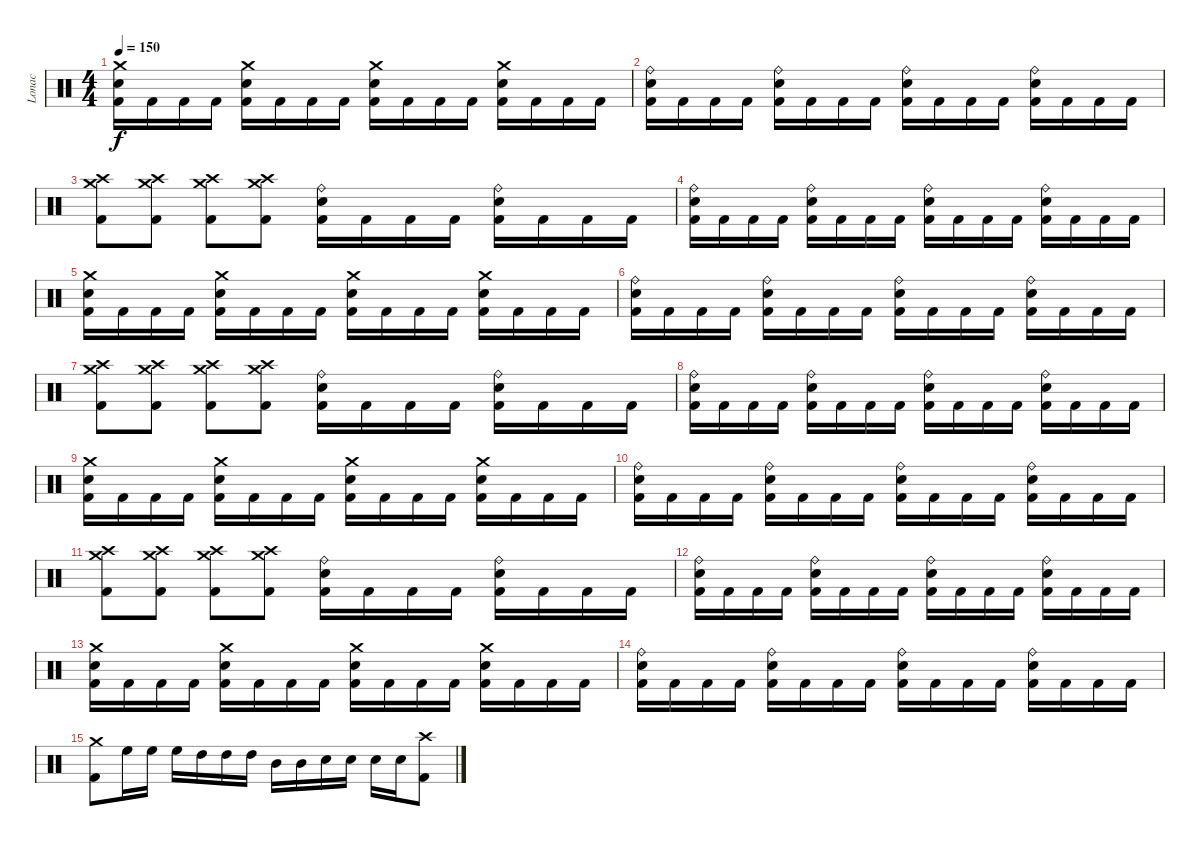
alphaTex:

\track ("Lonac" "Lonac") {instrument percussion}
\staff {score}
\articulation defaults
\ts (4 4)
\tempo 150
\clef neutral
\ks c
("Kick (hit) 2" "Snare (hit) 2" "Crash medium (hit)").16{dy f} "Kick (hit) 2".16 "Kick (hit) 2".16 "Kick (hit) 2".16 ("Kick (hit) 2" "Snare (hit) 2" "Crash medium (hit)").16 "Kick (hit) 2".16 "Kick (hit) 2".16 "Kick (hit) 2".16 ("Kick (hit) 2" "Snare (hit) 2" "Crash medium (hit)").16 "Kick (hit) 2".16 "Kick (hit) 2".16 "Kick (hit) 2".16 ("Kick (hit) 2" "Snare (hit) 2" "Crash medium (hit)").16 "Kick (hit) 2".16 "Kick (hit) 2".16 "Kick (hit) 2".16 |
("Kick (hit) 2" "Snare (hit) 2" "Ride (bell)").16 "Kick (hit) 2".16 "Kick (hit) 2".16 "Kick (hit) 2".16 ("Kick (hit) 2" "Snare (hit) 2" "Ride (bell)").16 "Kick (hit) 2".16 "Kick (hit) 2".16 "Kick (hit) 2".16 ("Kick (hit) 2" "Snare (hit) 2" "Ride (bell)").16 "Kick (hit) 2".16 "Kick (hit) 2".16 "Kick (hit) 2".16 ("Kick (hit) 2" "Snare (hit) 2" "Ride (bell)").16 "Kick (hit) 2".16 "Kick (hit) 2".16 "Kick (hit) 2".16 |
("Crash high (hit)" "Crash medium (hit)" "Kick (hit) 2").8 ("Crash high (hit)" "Crash medium (hit)" "Kick (hit) 2").8 ("Crash high (hit)" "Crash medium (hit)" "Kick (hit) 2").8 ("Crash high (hit)" "Crash medium (hit)" "Kick (hit) 2").8 ("Kick (hit) 2" "Snare (hit) 2" "Ride (bell)").16 "Kick (hit) 2".16 "Kick (hit) 2".16 "Kick (hit) 2".16 ("Kick (hit) 2" "Snare (hit) 2" "Ride (bell)").16 "Kick (hit) 2".16 "Kick (hit) 2".16 "Kick (hit) 2".16 |
("Kick (hit) 2" "Snare (hit) 2" "Ride (bell)").16 "Kick (hit) 2".16 "Kick (hit) 2".16 "Kick (hit) 2".16 ("Kick (hit) 2" "Snare (hit) 2" "Ride (bell)").16 "Kick (hit) 2".16 "Kick (hit) 2".16 "Kick (hit) 2".16 ("Kick (hit) 2" "Snare (hit) 2" "Ride (bell)").16 "Kick (hit) 2".16 "Kick (hit) 2".16 "Kick (hit) 2".16 ("Kick (hit) 2" "Snare (hit) 2" "Ride (bell)").16 "Kick (hit) 2".16 "Kick (hit) 2".16 "Kick (hit) 2".16 |
("Kick (hit) 2" "Snare (hit) 2" "Crash medium (hit)").16 "Kick (hit) 2".16 "Kick (hit) 2".16 "Kick (hit) 2".16 ("Kick (hit) 2" "Snare (hit) 2" "Crash medium (hit)").16 "Kick (hit) 2".16 "Kick (hit) 2".16 "Kick (hit) 2".16 ("Kick (hit) 2" "Snare (hit) 2" "Crash medium (hit)").16 "Kick (hit) 2".16 "Kick (hit) 2".16 "Kick (hit) 2".16 ("Kick (hit) 2" "Snare (hit) 2" "Crash medium (hit)").16 "Kick (hit) 2".16 "Kick (hit) 2".16 "Kick (hit) 2".16 |
("Kick (hit) 2" "Snare (hit) 2" "Ride (bell)").16 "Kick (hit) 2".16 "Kick (hit) 2".16 "Kick (hit) 2".16 ("Kick (hit) 2" "Snare (hit) 2" "Ride (bell)").16 "Kick (hit) 2".16 "Kick (hit) 2".16 "Kick (hit) 2".16 ("Kick (hit) 2" "Snare (hit) 2" "Ride (bell)").16 "Kick (hit) 2".16 "Kick (hit) 2".16 "Kick (hit) 2".16 ("Kick (hit) 2" "Snare (hit) 2" "Ride (bell)").16 "Kick (hit) 2".16 "Kick (hit) 2".16 "Kick (hit) 2".16 |
("Crash high (hit)" "Crash medium (hit)" "Kick (hit) 2").8 ("Crash high (hit)" "Crash medium (hit)" "Kick (hit) 2").8 ("Crash high (hit)" "Crash medium (hit)" "Kick (hit) 2").8 ("Crash high (hit)" "Crash medium (hit)" "Kick (hit) 2").8 ("Kick (hit) 2" "Snare (hit) 2" "Ride (bell)").16 "Kick (hit) 2".16 "Kick (hit) 2".16 "Kick (hit) 2".16 ("Kick (hit) 2" "Snare (hit) 2" "Ride (bell)").16 "Kick (hit) 2".16 "Kick (hit) 2".16 "Kick (hit) 2".16 |
("Kick (hit) 2" "Snare (hit) 2" "Ride (bell)").16 "Kick (hit) 2".16 "Kick (hit) 2".16 "Kick (hit) 2".16 ("Kick (hit) 2" "Snare (hit) 2" "Ride (bell)").16 "Kick (hit) 2".16 "Kick (hit) 2".16 "Kick (hit) 2".16 ("Kick (hit) 2" "Snare (hit) 2" "Ride (bell)").16 "Kick (hit) 2".16 "Kick (hit) 2".16 "Kick (hit) 2".16 ("Kick (hit) 2" "Snare (hit) 2" "Ride (bell)").16 "Kick (hit) 2".16 "Kick (hit) 2".16 "Kick (hit) 2".16 |
("Kick (hit) 2" "Snare (hit) 2" "Crash medium (hit)").16 "Kick (hit) 2".16 "Kick (hit) 2".16 "Kick (hit) 2".16 ("Kick (hit) 2" "Snare (hit) 2" "Crash medium (hit)").16 "Kick (hit) 2".16 "Kick (hit) 2".16 "Kick (hit) 2".16 ("Kick (hit) 2" "Snare (hit) 2" "Crash medium (hit)").16 "Kick (hit) 2".16 "Kick (hit) 2".16 "Kick (hit) 2".16 ("Kick (hit) 2" "Snare (hit) 2" "Crash medium (hit)").16 "Kick (hit) 2".16 "Kick (hit) 2".16 "Kick (hit) 2".16 |
("Kick (hit) 2" "Snare (hit) 2" "Ride (bell)").16 "Kick (hit) 2".16 "Kick (hit) 2".16 "Kick (hit) 2".16 ("Kick (hit) 2" "Snare (hit) 2" "Ride (bell)").16 "Kick (hit) 2".16 "Kick (hit) 2".16 "Kick (hit) 2".16 ("Kick (hit) 2" "Snare (hit) 2" "Ride (bell)").16 "Kick (hit) 2".16 "Kick (hit) 2".16 "Kick (hit) 2".16 ("Kick (hit) 2" "Snare (hit) 2" "Ride (bell)").16 "Kick (hit) 2".16 "Kick (hit) 2".16 "Kick (hit) 2".16 |
("Crash high (hit)" "Crash medium (hit)" "Kick (hit) 2").8 ("Crash high (hit)" "Crash medium (hit)" "Kick (hit) 2").8 ("Crash high (hit)" "Crash medium (hit)" "Kick (hit) 2").8 ("Crash high (hit)" "Crash medium (hit)" "Kick (hit) 2").8 ("Kick (hit) 2" "Snare (hit) 2" "Ride (bell)").16 "Kick (hit) 2".16 "Kick (hit) 2".16 "Kick (hit) 2".16 ("Kick (hit) 2" "Snare (hit) 2" "Ride (bell)").16 "Kick (hit) 2".16 "Kick (hit) 2".16 "Kick (hit) 2".16 |
("Kick (hit) 2" "Snare (hit) 2" "Ride (bell)").16 "Kick (hit) 2".16 "Kick (hit) 2".16 "Kick (hit) 2".16 ("Kick (hit) 2" "Snare (hit) 2" "Ride (bell)").16 "Kick (hit) 2".16 "Kick (hit) 2".16 "Kick (hit) 2".16 ("Kick (hit) 2" "Snare (hit) 2" "Ride (bell)").16 "Kick (hit) 2".16 "Kick (hit) 2".16 "Kick (hit) 2".16 ("Kick (hit) 2" "Snare (hit) 2" "Ride (bell)").16 "Kick (hit) 2".16 "Kick (hit) 2".16 "Kick (hit) 2".16 |
("Kick (hit) 2" "Snare (hit) 2" "Crash medium (hit)").16 "Kick (hit) 2".16 "Kick (hit) 2".16 "Kick (hit) 2".16 ("Kick (hit) 2" "Snare (hit) 2" "Crash medium (hit)").16 "Kick (hit) 2".16 "Kick (hit) 2".16 "Kick (hit) 2".16 ("Kick (hit) 2" "Snare (hit) 2" "Crash medium (hit)").16 "Kick (hit) 2".16 "Kick (hit) 2".16 "Kick (hit) 2".16 ("Kick (hit) 2" "Snare (hit) 2" "Crash medium (hit)").16 "Kick (hit) 2".16 "Kick (hit) 2".16 "Kick (hit) 2".16 |
("Kick (hit) 2" "Snare (hit) 2" "Ride (bell)").16 "Kick (hit) 2".16 "Kick (hit) 2".16 "Kick (hit) 2".16 ("Kick (hit) 2" "Snare (hit) 2" "Ride (bell)").16 "Kick (hit) 2".16 "Kick (hit) 2".16 "Kick (hit) 2".16 ("Kick (hit) 2" "Snare (hit) 2" "Ride (bell)").16 "Kick (hit) 2".16 "Kick (hit) 2".16 "Kick (hit) 2".16 ("Kick (hit) 2" "Snare (hit) 2" "Ride (bell)").16 "Kick (hit) 2".16 "Kick (hit) 2".16 "Kick (hit) 2".16 |
("Kick (hit) 2" "Crash medium (hit)").8 "High Floor Tom (hit)".16 "High Floor Tom (hit)".16 "High Floor Tom (hit)".16 "High Tom (hit)".16 "High Tom (hit)".16 "High Tom (hit)".16 "Mid Tom (hit)".16 "Mid Tom (hit)".16 "Snare (hit) 2".16 "Snare (hit) 2".16 "Snare (hit) 2".16 "Snare (hit) 2".16 ("Kick (hit) 2" "Crash high (hit)").8
